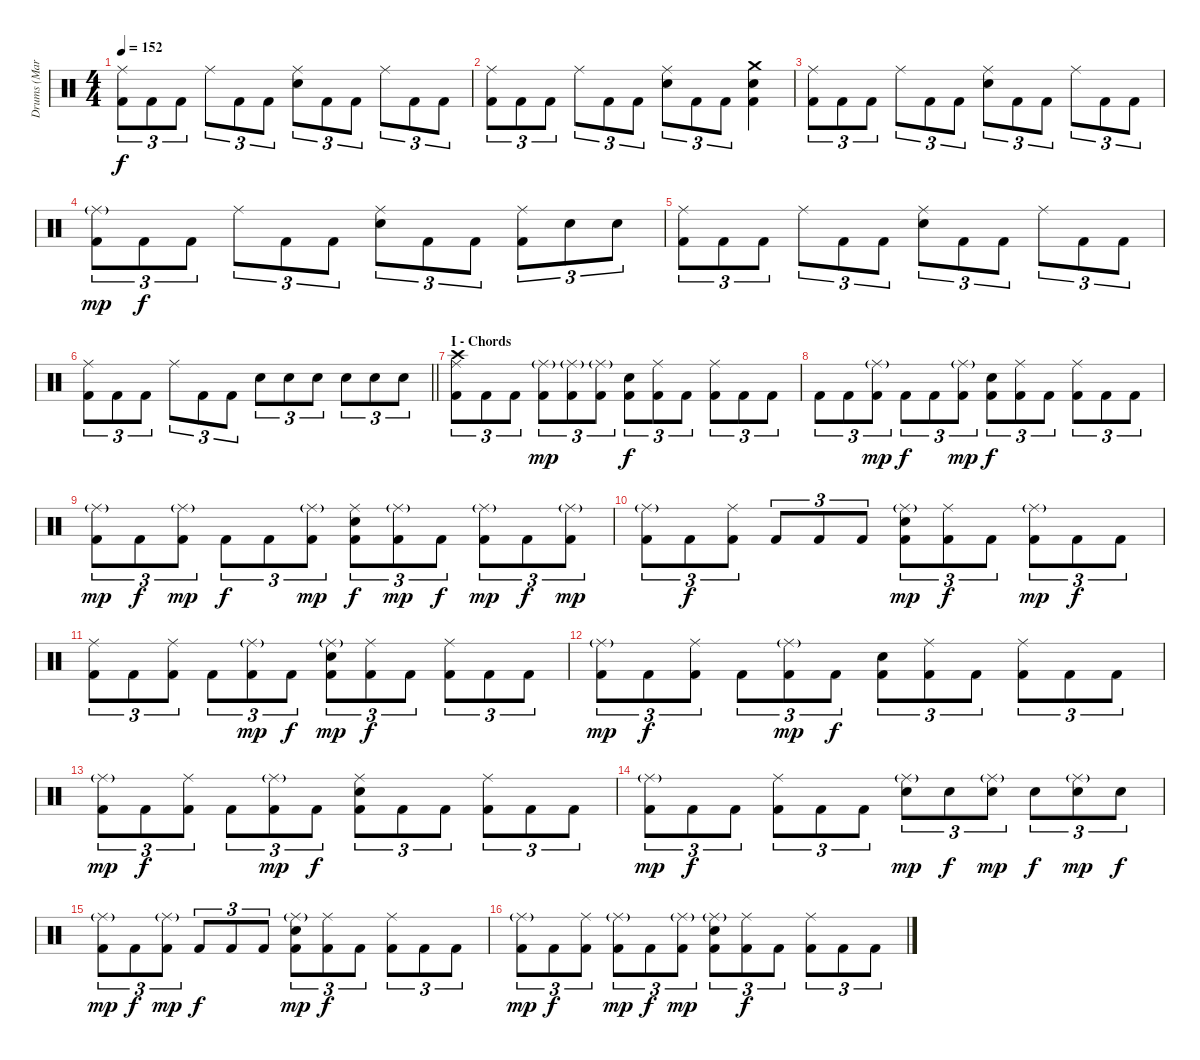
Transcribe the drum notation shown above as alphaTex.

\track ("Drums (Mark Arrington)" "Drums (Mar") {instrument percussion}
\staff {score}
\articulation defaults
\ts (4 4)
\tempo 152
\clef neutral
\ks aminor
("Ride (middle)" "Kick (hit) 2").8{tu (3 2) dy f} "Kick (hit) 2".8{tu (3 2)} "Kick (hit) 2".8{tu (3 2)} "Ride (middle)".8{tu (3 2)} "Kick (hit) 2".8{tu (3 2)} "Kick (hit) 2".8{tu (3 2)} ("Ride (middle)" "Electric Snare (hit)").8{tu (3 2)} "Kick (hit) 2".8{tu (3 2)} "Kick (hit) 2".8{tu (3 2)} "Ride (middle)".8{tu (3 2)} "Kick (hit) 2".8{tu (3 2)} "Kick (hit) 2".8{tu (3 2)} |
("Ride (middle)" "Kick (hit) 2").8{tu (3 2)} "Kick (hit) 2".8{tu (3 2)} "Kick (hit) 2".8{tu (3 2)} "Ride (middle)".8{tu (3 2)} "Kick (hit) 2".8{tu (3 2)} "Kick (hit) 2".8{tu (3 2)} ("Ride (middle)" "Electric Snare (hit)").8{tu (3 2)} "Kick (hit) 2".8{tu (3 2)} "Kick (hit) 2".8{tu (3 2)} ("Crash medium (hit)" "Electric Snare (hit)" "Kick (hit) 2").4 |
("Ride (middle)" "Kick (hit) 2").8{tu (3 2)} "Kick (hit) 2".8{tu (3 2)} "Kick (hit) 2".8{tu (3 2)} "Ride (middle)".8{tu (3 2)} "Kick (hit) 2".8{tu (3 2)} "Kick (hit) 2".8{tu (3 2)} ("Ride (middle)" "Electric Snare (hit)").8{tu (3 2)} "Kick (hit) 2".8{tu (3 2)} "Kick (hit) 2".8{tu (3 2)} "Ride (middle)".8{tu (3 2)} "Kick (hit) 2".8{tu (3 2)} "Kick (hit) 2".8{tu (3 2)} |
("Ride (middle)"{g} "Kick (hit) 2").8{tu (3 2) dy mp} "Kick (hit) 2".8{tu (3 2) dy f} "Kick (hit) 2".8{tu (3 2)} "Ride (middle)".8{tu (3 2)} "Kick (hit) 2".8{tu (3 2)} "Kick (hit) 2".8{tu (3 2)} ("Ride (middle)" "Electric Snare (hit)").8{tu (3 2)} "Kick (hit) 2".8{tu (3 2)} "Kick (hit) 2".8{tu (3 2)} ("Ride (middle)" "Kick (hit) 2").8{tu (3 2)} "Electric Snare (hit)".8{tu (3 2)} "Electric Snare (hit)".8{tu (3 2)} |
("Ride (middle)" "Kick (hit) 2").8{tu (3 2)} "Kick (hit) 2".8{tu (3 2)} "Kick (hit) 2".8{tu (3 2)} "Ride (middle)".8{tu (3 2)} "Kick (hit) 2".8{tu (3 2)} "Kick (hit) 2".8{tu (3 2)} ("Ride (middle)" "Electric Snare (hit)").8{tu (3 2)} "Kick (hit) 2".8{tu (3 2)} "Kick (hit) 2".8{tu (3 2)} "Ride (middle)".8{tu (3 2)} "Kick (hit) 2".8{tu (3 2)} "Kick (hit) 2".8{tu (3 2)} |
\barLineRight lightlight
("Ride (middle)" "Kick (hit) 2").8{tu (3 2)} "Kick (hit) 2".8{tu (3 2)} "Kick (hit) 2".8{tu (3 2)} "Ride (middle)".8{tu (3 2)} "Kick (hit) 2".8{tu (3 2)} "Kick (hit) 2".8{tu (3 2)} "Electric Snare (hit)".8{tu (3 2)} "Electric Snare (hit)".8{tu (3 2)} "Electric Snare (hit)".8{tu (3 2)} "Electric Snare (hit)".8{tu (3 2)} "Electric Snare (hit)".8{tu (3 2)} "Electric Snare (hit)".8{tu (3 2)} |
\section ("" "I - Chords")
("Ride (middle)" "Crash high (hit)" "Kick (hit) 2").8{tu (3 2)} "Kick (hit) 2".8{tu (3 2)} "Kick (hit) 2".8{tu (3 2)} ("Ride (middle)"{g} "Kick (hit) 2").8{tu (3 2) dy mp} ("Ride (middle)"{g} "Kick (hit) 2").8{tu (3 2)} ("Ride (middle)"{g} "Kick (hit) 2").8{tu (3 2)} ("Electric Snare (hit)" "Kick (hit) 2").8{tu (3 2) dy f} ("Ride (middle)" "Kick (hit) 2").8{tu (3 2)} "Kick (hit) 2".8{tu (3 2)} ("Ride (middle)" "Kick (hit) 2").8{tu (3 2)} "Kick (hit) 2".8{tu (3 2)} "Kick (hit) 2".8{tu (3 2)} |
"Kick (hit) 2".8{tu (3 2)} "Kick (hit) 2".8{tu (3 2)} ("Ride (middle)"{g} "Kick (hit) 2").8{tu (3 2) dy mp} "Kick (hit) 2".8{tu (3 2) dy f} "Kick (hit) 2".8{tu (3 2)} ("Ride (middle)"{g} "Kick (hit) 2").8{tu (3 2) dy mp} ("Electric Snare (hit)" "Kick (hit) 2").8{tu (3 2) dy f} ("Ride (middle)" "Kick (hit) 2").8{tu (3 2)} "Kick (hit) 2".8{tu (3 2)} ("Ride (middle)" "Kick (hit) 2").8{tu (3 2)} "Kick (hit) 2".8{tu (3 2)} "Kick (hit) 2".8{tu (3 2)} |
("Ride (middle)"{g} "Kick (hit) 2").8{tu (3 2) dy mp} "Kick (hit) 2".8{tu (3 2) dy f} ("Ride (middle)"{g} "Kick (hit) 2").8{tu (3 2) dy mp} "Kick (hit) 2".8{tu (3 2) dy f} "Kick (hit) 2".8{tu (3 2)} ("Ride (middle)"{g} "Kick (hit) 2").8{tu (3 2) dy mp} ("Ride (middle)" "Electric Snare (hit)" "Kick (hit) 2").8{tu (3 2) dy f} ("Ride (middle)"{g} "Kick (hit) 2").8{tu (3 2) dy mp} "Kick (hit) 2".8{tu (3 2) dy f} ("Ride (middle)"{g} "Kick (hit) 2").8{tu (3 2) dy mp} "Kick (hit) 2".8{tu (3 2) dy f} ("Ride (middle)"{g} "Kick (hit) 2").8{tu (3 2) dy mp} |
("Ride (middle)"{g} "Kick (hit) 2").8{tu (3 2)} "Kick (hit) 2".8{tu (3 2) dy f} ("Ride (middle)" "Kick (hit) 2").8{tu (3 2)} "Kick (hit) 2".8{tu (3 2)} "Kick (hit) 2".8{tu (3 2)} "Kick (hit) 2".8{tu (3 2)} ("Ride (middle)"{g} "Electric Snare (hit)" "Kick (hit) 2").8{tu (3 2) dy mp} ("Ride (middle)" "Kick (hit) 2").8{tu (3 2) dy f} "Kick (hit) 2".8{tu (3 2)} ("Ride (middle)"{g} "Kick (hit) 2").8{tu (3 2) dy mp} "Kick (hit) 2".8{tu (3 2) dy f} "Kick (hit) 2".8{tu (3 2)} |
("Ride (middle)" "Kick (hit) 2").8{tu (3 2)} "Kick (hit) 2".8{tu (3 2)} ("Ride (middle)" "Kick (hit) 2").8{tu (3 2)} "Kick (hit) 2".8{tu (3 2)} ("Ride (middle)"{g} "Kick (hit) 2").8{tu (3 2) dy mp} "Kick (hit) 2".8{tu (3 2) dy f} ("Ride (middle)"{g} "Electric Snare (hit)" "Kick (hit) 2").8{tu (3 2) dy mp} ("Ride (middle)" "Kick (hit) 2").8{tu (3 2) dy f} "Kick (hit) 2".8{tu (3 2)} ("Ride (middle)" "Kick (hit) 2").8{tu (3 2)} "Kick (hit) 2".8{tu (3 2)} "Kick (hit) 2".8{tu (3 2)} |
("Ride (middle)"{g} "Kick (hit) 2").8{tu (3 2) dy mp} "Kick (hit) 2".8{tu (3 2) dy f} ("Ride (middle)" "Kick (hit) 2").8{tu (3 2)} "Kick (hit) 2".8{tu (3 2)} ("Ride (middle)"{g} "Kick (hit) 2").8{tu (3 2) dy mp} "Kick (hit) 2".8{tu (3 2) dy f} ("Electric Snare (hit)" "Kick (hit) 2").8{tu (3 2)} ("Ride (middle)" "Kick (hit) 2").8{tu (3 2)} "Kick (hit) 2".8{tu (3 2)} ("Ride (middle)" "Kick (hit) 2").8{tu (3 2)} "Kick (hit) 2".8{tu (3 2)} "Kick (hit) 2".8{tu (3 2)} |
("Ride (middle)"{g} "Kick (hit) 2").8{tu (3 2) dy mp} "Kick (hit) 2".8{tu (3 2) dy f} ("Ride (middle)" "Kick (hit) 2").8{tu (3 2)} "Kick (hit) 2".8{tu (3 2)} ("Ride (middle)"{g} "Kick (hit) 2").8{tu (3 2) dy mp} "Kick (hit) 2".8{tu (3 2) dy f} ("Ride (middle)" "Electric Snare (hit)" "Kick (hit) 2").8{tu (3 2)} "Kick (hit) 2".8{tu (3 2)} "Kick (hit) 2".8{tu (3 2)} ("Ride (middle)" "Kick (hit) 2").8{tu (3 2)} "Kick (hit) 2".8{tu (3 2)} "Kick (hit) 2".8{tu (3 2)} |
("Ride (middle)"{g} "Kick (hit) 2").8{tu (3 2) dy mp} "Kick (hit) 2".8{tu (3 2) dy f} "Kick (hit) 2".8{tu (3 2)} ("Ride (middle)" "Kick (hit) 2").8{tu (3 2)} "Kick (hit) 2".8{tu (3 2)} "Kick (hit) 2".8{tu (3 2)} ("Ride (middle)"{g} "Electric Snare (hit)").8{tu (3 2) dy mp} "Electric Snare (hit)".8{tu (3 2) dy f} ("Ride (middle)"{g} "Electric Snare (hit)").8{tu (3 2) dy mp} "Electric Snare (hit)".8{tu (3 2) dy f} ("Ride (middle)"{g} "Electric Snare (hit)").8{tu (3 2) dy mp} "Electric Snare (hit)".8{tu (3 2) dy f} |
("Ride (middle)"{g} "Kick (hit) 2").8{tu (3 2) dy mp} "Kick (hit) 2".8{tu (3 2) dy f} ("Ride (middle)"{g} "Kick (hit) 2").8{tu (3 2) dy mp} "Kick (hit) 2".8{tu (3 2) dy f} "Kick (hit) 2".8{tu (3 2)} "Kick (hit) 2".8{tu (3 2)} ("Ride (middle)"{g} "Electric Snare (hit)" "Kick (hit) 2").8{tu (3 2) dy mp} ("Ride (middle)" "Kick (hit) 2").8{tu (3 2) dy f} "Kick (hit) 2".8{tu (3 2)} ("Ride (middle)" "Kick (hit) 2").8{tu (3 2)} "Kick (hit) 2".8{tu (3 2)} "Kick (hit) 2".8{tu (3 2)} |
("Ride (middle)"{g} "Kick (hit) 2").8{tu (3 2) dy mp} "Kick (hit) 2".8{tu (3 2) dy f} ("Ride (middle)" "Kick (hit) 2").8{tu (3 2)} ("Ride (middle)"{g} "Kick (hit) 2").8{tu (3 2) dy mp} "Kick (hit) 2".8{tu (3 2) dy f} ("Ride (middle)"{g} "Kick (hit) 2").8{tu (3 2) dy mp} ("Ride (middle)"{g} "Electric Snare (hit)" "Kick (hit) 2").8{tu (3 2)} ("Ride (middle)" "Kick (hit) 2").8{tu (3 2) dy f} "Kick (hit) 2".8{tu (3 2)} ("Ride (middle)" "Kick (hit) 2").8{tu (3 2)} "Kick (hit) 2".8{tu (3 2)} "Kick (hit) 2".8{tu (3 2)}
